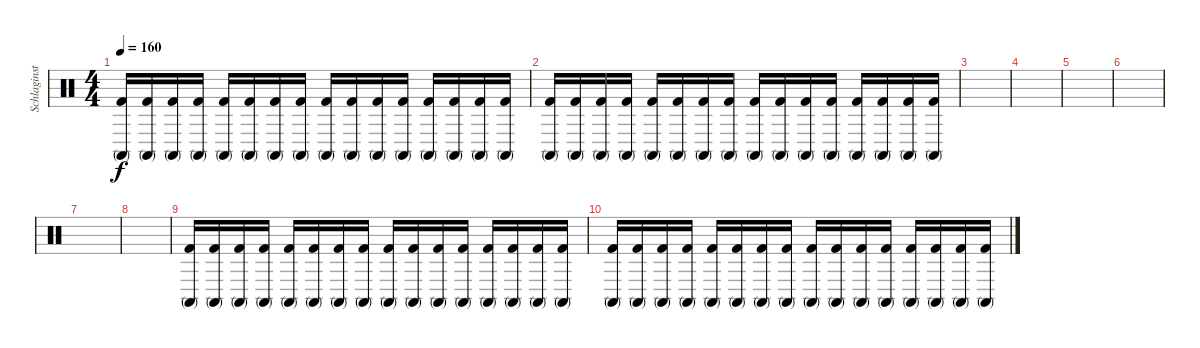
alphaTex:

\track ("Schlaginstrumente - Auswahl" "Schlaginst") {instrument percussion}
\staff {score}
\articulation defaults
\ts (4 4)
\tempo 160
\clef neutral
\ks c
("Conga high (mute)" "Kick (hit) 2").16{dy f} ("Conga high (mute)" "Kick (hit) 2").16 ("Conga high (mute)" "Kick (hit) 2").16 ("Conga high (mute)" "Kick (hit) 2").16 ("Conga high (mute)" "Kick (hit) 2").16 ("Conga high (mute)" "Kick (hit) 2").16 ("Conga high (mute)" "Kick (hit) 2").16 ("Conga high (mute)" "Kick (hit) 2").16 ("Conga high (mute)" "Kick (hit) 2").16 ("Conga high (mute)" "Kick (hit) 2").16 ("Conga high (mute)" "Kick (hit) 2").16 ("Conga high (mute)" "Kick (hit) 2").16 ("Conga high (mute)" "Kick (hit) 2").16 ("Conga high (mute)" "Kick (hit) 2").16 ("Conga high (mute)" "Kick (hit) 2").16 ("Conga high (mute)" "Kick (hit) 2").16 |
("Conga high (mute)" "Kick (hit) 2").16 ("Conga high (mute)" "Kick (hit) 2").16 ("Conga high (mute)" "Kick (hit) 2").16 ("Conga high (mute)" "Kick (hit) 2").16 ("Conga high (mute)" "Kick (hit) 2").16 ("Conga high (mute)" "Kick (hit) 2").16 ("Conga high (mute)" "Kick (hit) 2").16 ("Conga high (mute)" "Kick (hit) 2").16 ("Conga high (mute)" "Kick (hit) 2").16 ("Conga high (mute)" "Kick (hit) 2").16 ("Conga high (mute)" "Kick (hit) 2").16 ("Conga high (mute)" "Kick (hit) 2").16 ("Conga high (mute)" "Kick (hit) 2").16 ("Conga high (mute)" "Kick (hit) 2").16 ("Conga high (mute)" "Kick (hit) 2").16 ("Conga high (mute)" "Kick (hit) 2").16 |
|
|
|
|
|
|
("Conga high (mute)" "Kick (hit) 2").16 ("Conga high (mute)" "Kick (hit) 2").16 ("Conga high (mute)" "Kick (hit) 2").16 ("Conga high (mute)" "Kick (hit) 2").16 ("Conga high (mute)" "Kick (hit) 2").16 ("Conga high (mute)" "Kick (hit) 2").16 ("Conga high (mute)" "Kick (hit) 2").16 ("Conga high (mute)" "Kick (hit) 2").16 ("Conga high (mute)" "Kick (hit) 2").16 ("Conga high (mute)" "Kick (hit) 2").16 ("Conga high (mute)" "Kick (hit) 2").16 ("Conga high (mute)" "Kick (hit) 2").16 ("Conga high (mute)" "Kick (hit) 2").16 ("Conga high (mute)" "Kick (hit) 2").16 ("Conga high (mute)" "Kick (hit) 2").16 ("Conga high (mute)" "Kick (hit) 2").16 |
("Conga high (mute)" "Kick (hit) 2").16 ("Conga high (mute)" "Kick (hit) 2").16 ("Conga high (mute)" "Kick (hit) 2").16 ("Conga high (mute)" "Kick (hit) 2").16 ("Conga high (mute)" "Kick (hit) 2").16 ("Conga high (mute)" "Kick (hit) 2").16 ("Conga high (mute)" "Kick (hit) 2").16 ("Conga high (mute)" "Kick (hit) 2").16 ("Conga high (mute)" "Kick (hit) 2").16 ("Conga high (mute)" "Kick (hit) 2").16 ("Conga high (mute)" "Kick (hit) 2").16 ("Conga high (mute)" "Kick (hit) 2").16 ("Conga high (mute)" "Kick (hit) 2").16 ("Conga high (mute)" "Kick (hit) 2").16 ("Conga high (mute)" "Kick (hit) 2").16 ("Conga high (mute)" "Kick (hit) 2").16
